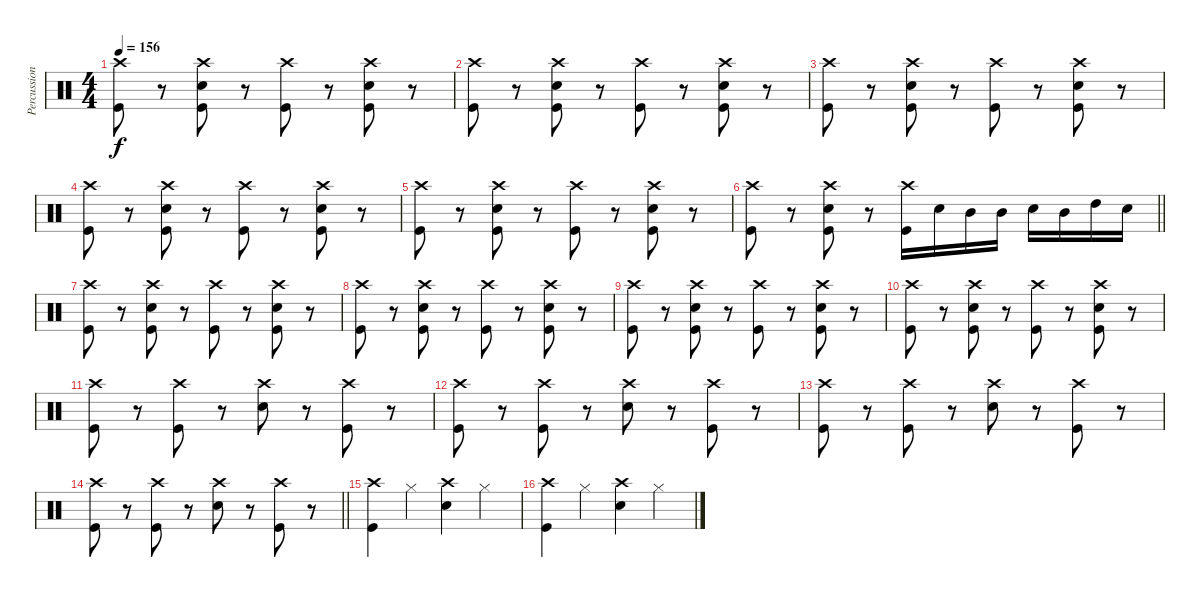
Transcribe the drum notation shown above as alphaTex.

\track ("Percussion" "Percussion") {instrument percussion}
\staff {score}
\articulation defaults
\ts (4 4)
\tempo 156
\clef neutral
\ks c
("Crash high (hit)" "Kick (hit)").8{dy f} r.8 ("Crash high (hit)" "Snare (hit) 2" "Kick (hit)").8 r.8 ("Crash high (hit)" "Kick (hit)").8 r.8 ("Crash high (hit)" "Snare (hit) 2" "Kick (hit)").8 r.8 |
("Crash high (hit)" "Kick (hit)").8 r.8 ("Crash high (hit)" "Snare (hit) 2" "Kick (hit)").8 r.8 ("Crash high (hit)" "Kick (hit)").8 r.8 ("Crash high (hit)" "Snare (hit) 2" "Kick (hit)").8 r.8 |
("Crash high (hit)" "Kick (hit)").8 r.8 ("Crash high (hit)" "Snare (hit) 2" "Kick (hit)").8 r.8 ("Crash high (hit)" "Kick (hit)").8 r.8 ("Crash high (hit)" "Snare (hit) 2" "Kick (hit)").8 r.8 |
("Crash high (hit)" "Kick (hit)").8 r.8 ("Crash high (hit)" "Snare (hit) 2" "Kick (hit)").8 r.8 ("Crash high (hit)" "Kick (hit)").8 r.8 ("Crash high (hit)" "Snare (hit) 2" "Kick (hit)").8 r.8 |
("Crash high (hit)" "Kick (hit)").8 r.8 ("Crash high (hit)" "Snare (hit) 2" "Kick (hit)").8 r.8 ("Crash high (hit)" "Kick (hit)").8 r.8 ("Crash high (hit)" "Snare (hit) 2" "Kick (hit)").8 r.8 |
\barLineRight lightlight
("Crash high (hit)" "Kick (hit)").8 r.8 ("Crash high (hit)" "Snare (hit) 2" "Kick (hit)").8 r.8 ("Crash high (hit)" "Kick (hit)").16 "Snare (hit) 2".16 "Mid Tom (hit)".16 "Mid Tom (hit)".16 "Snare (hit) 2".16 "Mid Tom (hit)".16 "High Tom (hit)".16 "Snare (hit) 2".16 |
("Crash high (hit)" "Kick (hit)").8 r.8 ("Crash high (hit)" "Snare (hit) 2" "Kick (hit)").8 r.8 ("Crash high (hit)" "Kick (hit)").8 r.8 ("Crash high (hit)" "Snare (hit) 2" "Kick (hit)").8 r.8 |
("Crash high (hit)" "Kick (hit)").8 r.8 ("Crash high (hit)" "Snare (hit) 2" "Kick (hit)").8 r.8 ("Crash high (hit)" "Kick (hit)").8 r.8 ("Crash high (hit)" "Snare (hit) 2" "Kick (hit)").8 r.8 |
("Crash high (hit)" "Kick (hit)").8 r.8 ("Crash high (hit)" "Snare (hit) 2" "Kick (hit)").8 r.8 ("Crash high (hit)" "Kick (hit)").8 r.8 ("Crash high (hit)" "Snare (hit) 2" "Kick (hit)").8 r.8 |
("Crash high (hit)" "Kick (hit)").8 r.8 ("Crash high (hit)" "Snare (hit) 2" "Kick (hit)").8 r.8 ("Crash high (hit)" "Kick (hit)").8 r.8 ("Crash high (hit)" "Snare (hit) 2" "Kick (hit)").8 r.8 |
("Crash high (hit)" "Kick (hit)").8 r.8 ("Crash high (hit)" "Kick (hit)").8 r.8 ("Crash high (hit)" "Snare (hit) 2").8 r.8 ("Crash high (hit)" "Kick (hit)").8 r.8 |
("Crash high (hit)" "Kick (hit)").8 r.8 ("Crash high (hit)" "Kick (hit)").8 r.8 ("Crash high (hit)" "Snare (hit) 2").8 r.8 ("Crash high (hit)" "Kick (hit)").8 r.8 |
("Crash high (hit)" "Kick (hit)").8 r.8 ("Crash high (hit)" "Kick (hit)").8 r.8 ("Crash high (hit)" "Snare (hit) 2").8 r.8 ("Crash high (hit)" "Kick (hit)").8 r.8 |
\barLineRight lightlight
("Crash high (hit)" "Kick (hit)").8 r.8 ("Crash high (hit)" "Kick (hit)").8 r.8 ("Crash high (hit)" "Snare (hit) 2").8 r.8 ("Crash high (hit)" "Kick (hit)").8 r.8 |
("Crash high (hit)" "Kick (hit)").4 "Hi-Hat (closed)".4 ("Crash high (hit)" "Snare (hit) 2").4 "Hi-Hat (closed)".4 |
("Crash high (hit)" "Kick (hit)").4 "Hi-Hat (closed)".4 ("Crash high (hit)" "Snare (hit) 2").4 "Hi-Hat (closed)".4
